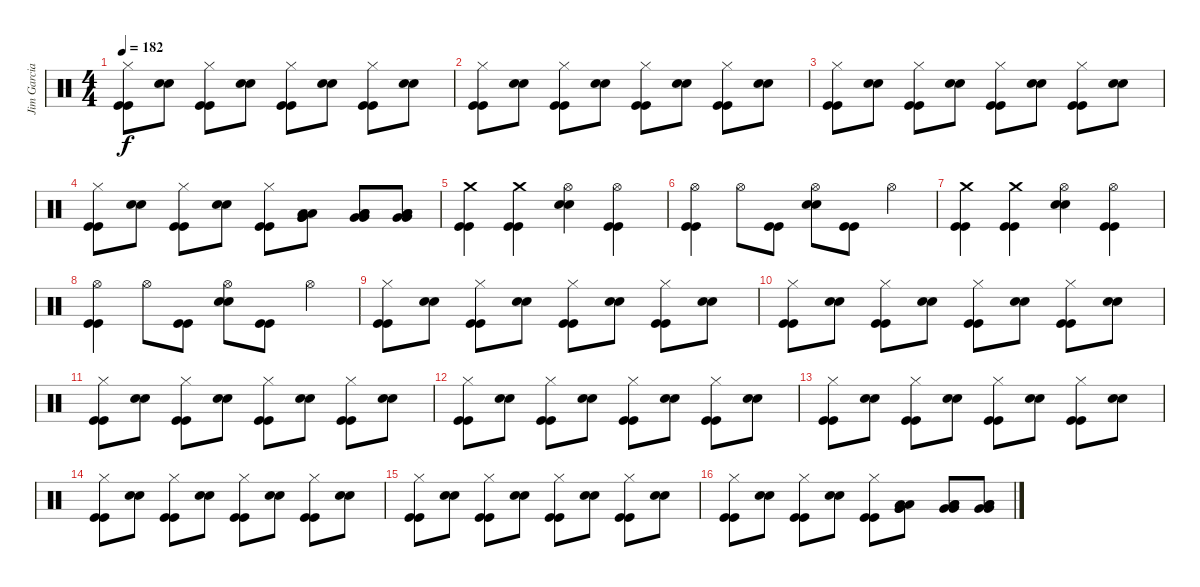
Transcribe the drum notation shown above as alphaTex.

\track ("Jim Garcia" "Jim Garcia") {instrument percussion}
\staff {score}
\articulation defaults
\ts (4 4)
\tempo 182
\clef neutral
\ks c
("Hi-Hat (closed)" "Kick (hit)" "Kick (hit)").8{dy f} ("Snare (hit) 2" "Snare (hit) 2").8 ("Hi-Hat (closed)" "Kick (hit)" "Kick (hit)").8 ("Snare (hit) 2" "Snare (hit) 2").8 ("Hi-Hat (closed)" "Kick (hit)" "Kick (hit)").8 ("Snare (hit) 2" "Snare (hit) 2").8 ("Hi-Hat (closed)" "Kick (hit)" "Kick (hit)").8 ("Snare (hit) 2" "Snare (hit) 2").8 |
("Hi-Hat (closed)" "Kick (hit)" "Kick (hit)").8 ("Snare (hit) 2" "Snare (hit) 2").8 ("Hi-Hat (closed)" "Kick (hit)" "Kick (hit)").8 ("Snare (hit) 2" "Snare (hit) 2").8 ("Hi-Hat (closed)" "Kick (hit)" "Kick (hit)").8 ("Snare (hit) 2" "Snare (hit) 2").8 ("Hi-Hat (closed)" "Kick (hit)" "Kick (hit)").8 ("Snare (hit) 2" "Snare (hit) 2").8 |
("Hi-Hat (closed)" "Kick (hit)" "Kick (hit)").8 ("Snare (hit) 2" "Snare (hit) 2").8 ("Hi-Hat (closed)" "Kick (hit)" "Kick (hit)").8 ("Snare (hit) 2" "Snare (hit) 2").8 ("Hi-Hat (closed)" "Kick (hit)" "Kick (hit)").8 ("Snare (hit) 2" "Snare (hit) 2").8 ("Hi-Hat (closed)" "Kick (hit)" "Kick (hit)").8 ("Snare (hit) 2" "Snare (hit) 2").8 |
("Hi-Hat (closed)" "Kick (hit)" "Kick (hit)").8 ("Snare (hit) 2" "Snare (hit) 2").8 ("Hi-Hat (closed)" "Kick (hit)" "Kick (hit)").8 ("Snare (hit) 2" "Snare (hit) 2").8 ("Hi-Hat (closed)" "Kick (hit)" "Kick (hit)").8 ("Very Low Tom (hit)" "Very Low Tom (hit)" "Low Floor Tom (hit)" "Low Floor Tom (hit)").8 ("Very Low Tom (hit)" "Very Low Tom (hit)" "Low Floor Tom (hit)" "Low Floor Tom (hit)").8 ("Very Low Tom (hit)" "Very Low Tom (hit)" "Low Floor Tom (hit)" "Low Floor Tom (hit)").8 |
("Crash medium (hit)" "Kick (hit)" "Kick (hit)").4 ("Crash medium (hit)" "Kick (hit)" "Kick (hit)").4 ("Snare (hit) 2" "Snare (hit) 2" "Hi-Hat (open)").4 ("Hi-Hat (open)" "Kick (hit)" "Kick (hit)").4 |
("Hi-Hat (open)" "Kick (hit)" "Kick (hit)").4 "Hi-Hat (open)".8 ("Kick (hit)" "Kick (hit)").8 ("Snare (hit) 2" "Snare (hit) 2" "Hi-Hat (open)").8 ("Kick (hit)" "Kick (hit)").8 "Hi-Hat (open)".4 |
("Crash medium (hit)" "Kick (hit)" "Kick (hit)").4 ("Crash medium (hit)" "Kick (hit)" "Kick (hit)").4 ("Snare (hit) 2" "Snare (hit) 2" "Hi-Hat (open)").4 ("Hi-Hat (open)" "Kick (hit)" "Kick (hit)").4 |
("Hi-Hat (open)" "Kick (hit)" "Kick (hit)").4 "Hi-Hat (open)".8 ("Kick (hit)" "Kick (hit)").8 ("Snare (hit) 2" "Snare (hit) 2" "Hi-Hat (open)").8 ("Kick (hit)" "Kick (hit)").8 "Hi-Hat (open)".4 |
("Hi-Hat (closed)" "Kick (hit)" "Kick (hit)").8 ("Snare (hit) 2" "Snare (hit) 2").8 ("Hi-Hat (closed)" "Kick (hit)" "Kick (hit)").8 ("Snare (hit) 2" "Snare (hit) 2").8 ("Hi-Hat (closed)" "Kick (hit)" "Kick (hit)").8 ("Snare (hit) 2" "Snare (hit) 2").8 ("Hi-Hat (closed)" "Kick (hit)" "Kick (hit)").8 ("Snare (hit) 2" "Snare (hit) 2").8 |
("Hi-Hat (closed)" "Kick (hit)" "Kick (hit)").8 ("Snare (hit) 2" "Snare (hit) 2").8 ("Hi-Hat (closed)" "Kick (hit)" "Kick (hit)").8 ("Snare (hit) 2" "Snare (hit) 2").8 ("Hi-Hat (closed)" "Kick (hit)" "Kick (hit)").8 ("Snare (hit) 2" "Snare (hit) 2").8 ("Hi-Hat (closed)" "Kick (hit)" "Kick (hit)").8 ("Snare (hit) 2" "Snare (hit) 2").8 |
("Hi-Hat (closed)" "Kick (hit)" "Kick (hit)").8 ("Snare (hit) 2" "Snare (hit) 2").8 ("Hi-Hat (closed)" "Kick (hit)" "Kick (hit)").8 ("Snare (hit) 2" "Snare (hit) 2").8 ("Hi-Hat (closed)" "Kick (hit)" "Kick (hit)").8 ("Snare (hit) 2" "Snare (hit) 2").8 ("Hi-Hat (closed)" "Kick (hit)" "Kick (hit)").8 ("Snare (hit) 2" "Snare (hit) 2").8 |
("Hi-Hat (closed)" "Kick (hit)" "Kick (hit)").8 ("Snare (hit) 2" "Snare (hit) 2").8 ("Hi-Hat (closed)" "Kick (hit)" "Kick (hit)").8 ("Snare (hit) 2" "Snare (hit) 2").8 ("Hi-Hat (closed)" "Kick (hit)" "Kick (hit)").8 ("Snare (hit) 2" "Snare (hit) 2").8 ("Hi-Hat (closed)" "Kick (hit)" "Kick (hit)").8 ("Snare (hit) 2" "Snare (hit) 2").8 |
("Hi-Hat (closed)" "Kick (hit)" "Kick (hit)").8 ("Snare (hit) 2" "Snare (hit) 2").8 ("Hi-Hat (closed)" "Kick (hit)" "Kick (hit)").8 ("Snare (hit) 2" "Snare (hit) 2").8 ("Hi-Hat (closed)" "Kick (hit)" "Kick (hit)").8 ("Snare (hit) 2" "Snare (hit) 2").8 ("Hi-Hat (closed)" "Kick (hit)" "Kick (hit)").8 ("Snare (hit) 2" "Snare (hit) 2").8 |
("Hi-Hat (closed)" "Kick (hit)" "Kick (hit)").8 ("Snare (hit) 2" "Snare (hit) 2").8 ("Hi-Hat (closed)" "Kick (hit)" "Kick (hit)").8 ("Snare (hit) 2" "Snare (hit) 2").8 ("Hi-Hat (closed)" "Kick (hit)" "Kick (hit)").8 ("Snare (hit) 2" "Snare (hit) 2").8 ("Hi-Hat (closed)" "Kick (hit)" "Kick (hit)").8 ("Snare (hit) 2" "Snare (hit) 2").8 |
("Hi-Hat (closed)" "Kick (hit)" "Kick (hit)").8 ("Snare (hit) 2" "Snare (hit) 2").8 ("Hi-Hat (closed)" "Kick (hit)" "Kick (hit)").8 ("Snare (hit) 2" "Snare (hit) 2").8 ("Hi-Hat (closed)" "Kick (hit)" "Kick (hit)").8 ("Snare (hit) 2" "Snare (hit) 2").8 ("Hi-Hat (closed)" "Kick (hit)" "Kick (hit)").8 ("Snare (hit) 2" "Snare (hit) 2").8 |
("Hi-Hat (closed)" "Kick (hit)" "Kick (hit)").8 ("Snare (hit) 2" "Snare (hit) 2").8 ("Hi-Hat (closed)" "Kick (hit)" "Kick (hit)").8 ("Snare (hit) 2" "Snare (hit) 2").8 ("Hi-Hat (closed)" "Kick (hit)" "Kick (hit)").8 ("Very Low Tom (hit)" "Very Low Tom (hit)" "Low Floor Tom (hit)" "Low Floor Tom (hit)").8 ("Very Low Tom (hit)" "Very Low Tom (hit)" "Low Floor Tom (hit)" "Low Floor Tom (hit)").8 ("Very Low Tom (hit)" "Very Low Tom (hit)" "Low Floor Tom (hit)" "Low Floor Tom (hit)").8
